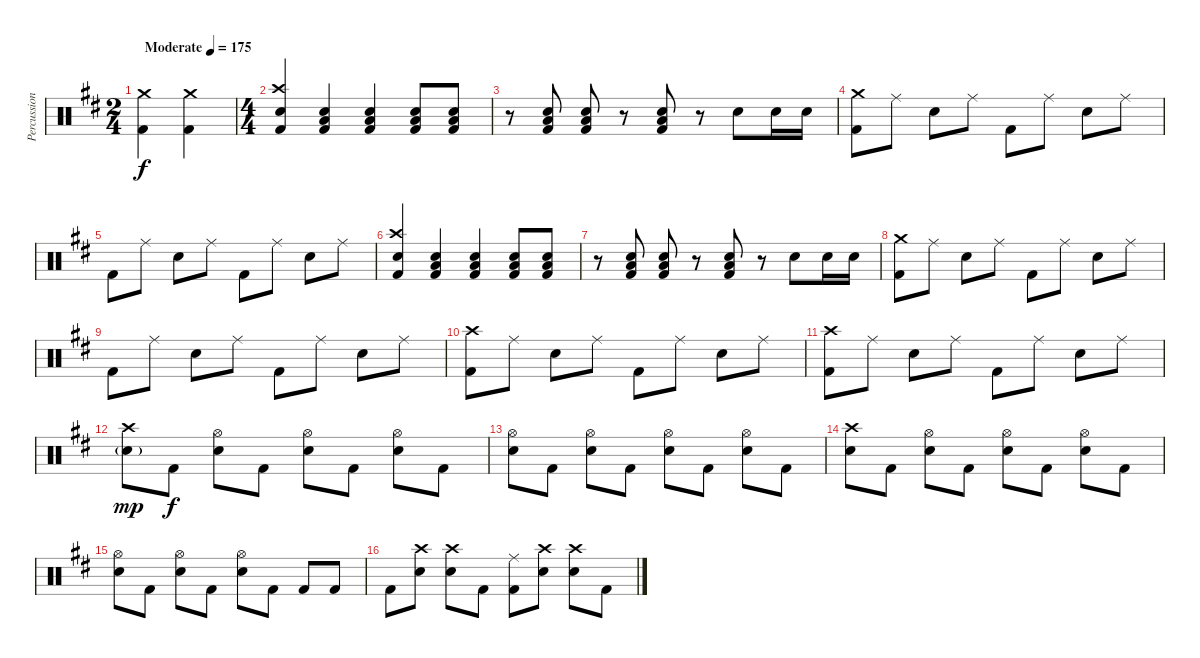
\track ("Percussion" "Percussion") {instrument percussion}
\staff {score}
\articulation defaults
\ts (2 4)
\tempo (175 "Moderate")
\clef neutral
\ks d
("Crash medium (hit)" "Kick (hit) 2").4{dy f} ("Crash medium (hit)" "Kick (hit) 2").4 |
\ts (4 4)
("Crash high (hit)" "Electric Snare (hit)" "Kick (hit) 2").4 ("Low Floor Tom (hit)" "Electric Snare (hit)" "Kick (hit) 2").4 ("Low Floor Tom (hit)" "Electric Snare (hit)" "Kick (hit) 2").4 ("Low Floor Tom (hit)" "Electric Snare (hit)" "Kick (hit) 2").8 ("Low Floor Tom (hit)" "Electric Snare (hit)" "Kick (hit) 2").8 |
r.8 ("Low Floor Tom (hit)" "Electric Snare (hit)" "Kick (hit) 2").8 ("Low Floor Tom (hit)" "Electric Snare (hit)" "Kick (hit) 2").8 r.8 ("Low Floor Tom (hit)" "Electric Snare (hit)" "Kick (hit) 2").8 r.8 "Electric Snare (hit)".8 "Electric Snare (hit)".16 "Electric Snare (hit)".16 |
("Crash medium (hit)" "Kick (hit) 2").8 "Ride (middle)".8 "Electric Snare (hit)".8 "Ride (middle)".8 "Kick (hit) 2".8 "Ride (middle)".8 "Electric Snare (hit)".8 "Ride (middle)".8 |
"Kick (hit) 2".8 "Ride (middle)".8 "Electric Snare (hit)".8 "Ride (middle)".8 "Kick (hit) 2".8 "Ride (middle)".8 "Electric Snare (hit)".8 "Ride (middle)".8 |
("Crash high (hit)" "Electric Snare (hit)" "Kick (hit) 2").4 ("Low Floor Tom (hit)" "Electric Snare (hit)" "Kick (hit) 2").4 ("Low Floor Tom (hit)" "Electric Snare (hit)" "Kick (hit) 2").4 ("Low Floor Tom (hit)" "Electric Snare (hit)" "Kick (hit) 2").8 ("Low Floor Tom (hit)" "Electric Snare (hit)" "Kick (hit) 2").8 |
r.8 ("Low Floor Tom (hit)" "Electric Snare (hit)" "Kick (hit) 2").8 ("Low Floor Tom (hit)" "Electric Snare (hit)" "Kick (hit) 2").8 r.8 ("Low Floor Tom (hit)" "Electric Snare (hit)" "Kick (hit) 2").8 r.8 "Electric Snare (hit)".8 "Electric Snare (hit)".16 "Electric Snare (hit)".16 |
("Crash medium (hit)" "Kick (hit) 2").8 "Ride (middle)".8 "Electric Snare (hit)".8 "Ride (middle)".8 "Kick (hit) 2".8 "Ride (middle)".8 "Electric Snare (hit)".8 "Ride (middle)".8 |
"Kick (hit) 2".8 "Ride (middle)".8 "Electric Snare (hit)".8 "Ride (middle)".8 "Kick (hit) 2".8 "Ride (middle)".8 "Electric Snare (hit)".8 "Ride (middle)".8 |
("Crash high (hit)" "Kick (hit) 2").8 "Ride (middle)".8 "Electric Snare (hit)".8 "Ride (middle)".8 "Kick (hit) 2".8 "Ride (middle)".8 "Electric Snare (hit)".8 "Ride (middle)".8 |
("Crash high (hit)" "Kick (hit) 2").8 "Ride (middle)".8 "Electric Snare (hit)".8 "Ride (middle)".8 "Kick (hit) 2".8 "Ride (middle)".8 "Electric Snare (hit)".8 "Ride (middle)".8 |
("Crash high (hit)" "Electric Snare (hit)"{g}).8{dy mp} "Kick (hit) 2".8{dy f} ("Hi-Hat (open)" "Electric Snare (hit)").8 "Kick (hit) 2".8 ("Hi-Hat (open)" "Electric Snare (hit)").8 "Kick (hit) 2".8 ("Hi-Hat (open)" "Electric Snare (hit)").8 "Kick (hit) 2".8 |
("Hi-Hat (open)" "Electric Snare (hit)").8 "Kick (hit) 2".8 ("Hi-Hat (open)" "Electric Snare (hit)").8 "Kick (hit) 2".8 ("Hi-Hat (open)" "Electric Snare (hit)").8 "Kick (hit) 2".8 ("Hi-Hat (open)" "Electric Snare (hit)").8 "Kick (hit) 2".8 |
("Crash high (hit)" "Electric Snare (hit)").8 "Kick (hit) 2".8 ("Hi-Hat (open)" "Electric Snare (hit)").8 "Kick (hit) 2".8 ("Hi-Hat (open)" "Electric Snare (hit)").8 "Kick (hit) 2".8 ("Hi-Hat (open)" "Electric Snare (hit)").8 "Kick (hit) 2".8 |
("Hi-Hat (open)" "Electric Snare (hit)").8 "Kick (hit) 2".8 ("Hi-Hat (open)" "Electric Snare (hit)").8 "Kick (hit) 2".8 ("Hi-Hat (open)" "Electric Snare (hit)").8 "Kick (hit) 2".8 "Kick (hit) 2".8 "Kick (hit) 2".8 |
"Kick (hit) 2".8 ("Crash high (hit)" "Electric Snare (hit)").8 ("Crash high (hit)" "Electric Snare (hit)").8 "Kick (hit) 2".8 ("Ride (middle)" "Kick (hit) 2").8 ("Crash high (hit)" "Electric Snare (hit)").8 ("Crash high (hit)" "Electric Snare (hit)").8 "Kick (hit) 2".8
